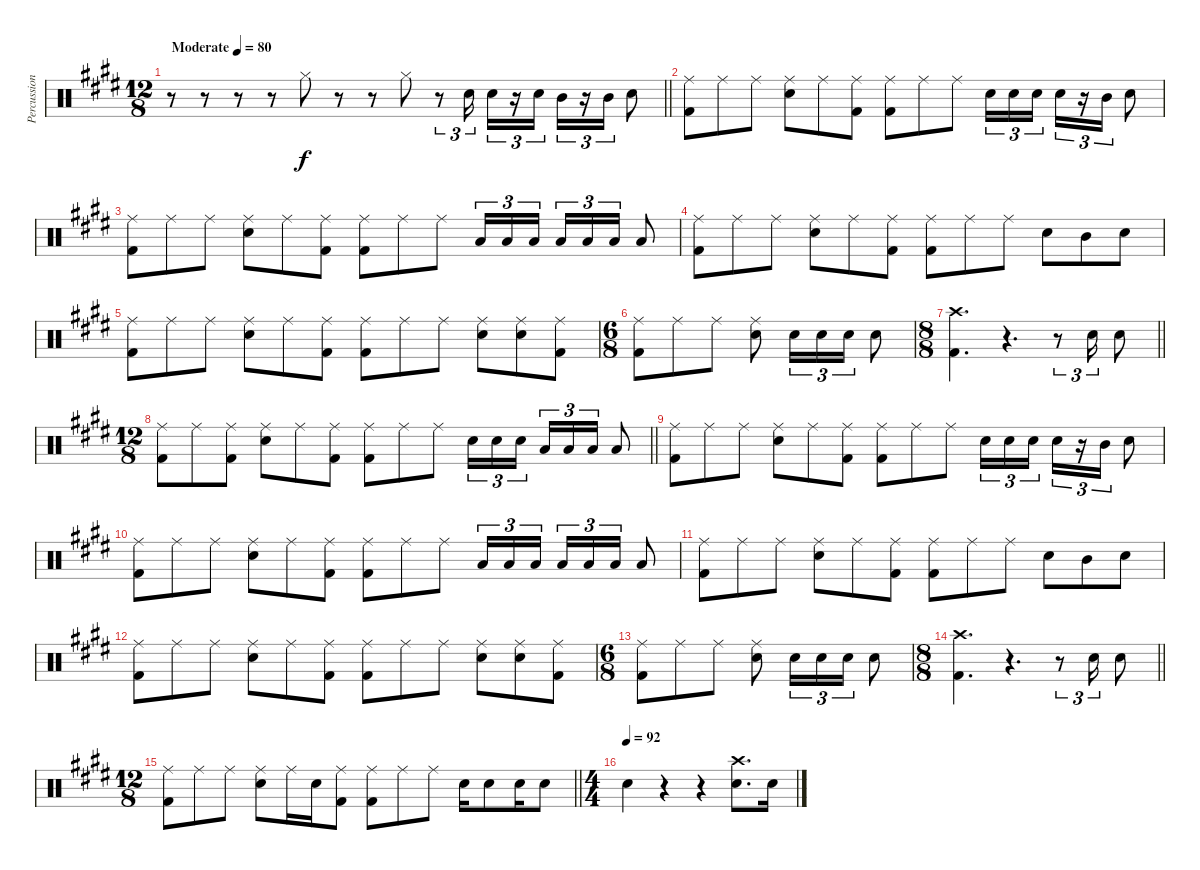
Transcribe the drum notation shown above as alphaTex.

\track ("Percussion" "Percussion") {instrument percussion}
\staff {score}
\articulation defaults
\ts (12 8)
\tempo (80 "Moderate")
\clef neutral
\barLineRight lightlight
\ks e
r.8{dy f} r.8 r.8 r.8 "Hi-Hat (closed)".8 r.8 r.8 "Hi-Hat (closed)".8 r.8{tu (3 2)} "Snare (hit) 2".16{tu (3 2)} "Snare (hit) 2".16{tu (3 2)} r.16{tu (3 2)} "Snare (hit) 2".16{tu (3 2)} "Mid Tom (hit)".16{tu (3 2)} r.16{tu (3 2)} "Mid Tom (hit)".16{tu (3 2)} "Snare (hit) 2".8 |
("Ride (middle)" "Kick (hit) 2").8 "Ride (middle)".8 "Ride (middle)".8 ("Ride (middle)" "Snare (hit) 2").8 "Ride (middle)".8 ("Ride (middle)" "Kick (hit) 2").8 ("Ride (middle)" "Kick (hit) 2").8 "Ride (middle)".8 "Ride (middle)".8 "Snare (hit) 2".16{tu (3 2)} "Snare (hit) 2".16{tu (3 2)} "Snare (hit) 2".16{tu (3 2) beam splitsecondary} "Snare (hit) 2".16{tu (3 2)} r.16{tu (3 2)} "Mid Tom (hit)".16{tu (3 2)} "Snare (hit) 2".8 |
("Ride (middle)" "Kick (hit) 2").8 "Ride (middle)".8 "Ride (middle)".8 ("Ride (middle)" "Snare (hit) 2").8 "Ride (middle)".8 ("Ride (middle)" "Kick (hit) 2").8 ("Ride (middle)" "Kick (hit) 2").8 "Ride (middle)".8 "Ride (middle)".8 "Low Floor Tom (hit)".16{tu (3 2)} "Low Floor Tom (hit)".16{tu (3 2)} "Low Floor Tom (hit)".16{tu (3 2) beam splitsecondary} "Low Floor Tom (hit)".16{tu (3 2)} "Low Floor Tom (hit)".16{tu (3 2)} "Low Floor Tom (hit)".16{tu (3 2)} "Low Floor Tom (hit)".8 |
("Ride (middle)" "Kick (hit) 2").8 "Ride (middle)".8 "Ride (middle)".8 ("Ride (middle)" "Snare (hit) 2").8 "Ride (middle)".8 ("Ride (middle)" "Kick (hit) 2").8 ("Ride (middle)" "Kick (hit) 2").8 "Ride (middle)".8 "Ride (middle)".8 "Snare (hit) 2".8 "Mid Tom (hit)".8 "Snare (hit) 2".8 |
("Ride (middle)" "Kick (hit) 2").8 "Ride (middle)".8 "Ride (middle)".8 ("Ride (middle)" "Snare (hit) 2").8 "Ride (middle)".8 ("Ride (middle)" "Kick (hit) 2").8 ("Ride (middle)" "Kick (hit) 2").8 "Ride (middle)".8 "Ride (middle)".8 ("Ride (middle)" "Snare (hit) 2").8 ("Ride (middle)" "Snare (hit) 2").8 ("Ride (middle)" "Kick (hit) 2").8 |
\ts (6 8)
("Ride (middle)" "Kick (hit) 2").8 "Ride (middle)".8 "Ride (middle)".8 ("Ride (middle)" "Snare (hit) 2").8 "Snare (hit) 2".16{tu (3 2)} "Snare (hit) 2".16{tu (3 2)} "Snare (hit) 2".16{tu (3 2)} "Snare (hit) 2".8 |
\ts (8 8)
\barLineRight lightlight
("Crash high (hit)" "Kick (hit) 2").4{d} r.4{d} r.8{tu (3 2)} "Snare (hit) 2".16{tu (3 2)} "Snare (hit) 2".8 |
\ts (12 8)
\barLineRight lightlight
("Ride (middle)" "Kick (hit) 2").8 "Ride (middle)".8 ("Ride (middle)" "Kick (hit) 2").8 ("Ride (middle)" "Snare (hit) 2").8 "Ride (middle)".8 ("Ride (middle)" "Kick (hit) 2").8 ("Ride (middle)" "Kick (hit) 2").8 "Ride (middle)".8 "Ride (middle)".8 "Snare (hit) 2".16{tu (3 2)} "Snare (hit) 2".16{tu (3 2)} "Snare (hit) 2".16{tu (3 2) beam splitsecondary} "Low Floor Tom (hit)".16{tu (3 2)} "Low Floor Tom (hit)".16{tu (3 2)} "Low Floor Tom (hit)".16{tu (3 2)} "Low Floor Tom (hit)".8 |
("Ride (middle)" "Kick (hit) 2").8 "Ride (middle)".8 "Ride (middle)".8 ("Ride (middle)" "Snare (hit) 2").8 "Ride (middle)".8 ("Ride (middle)" "Kick (hit) 2").8 ("Ride (middle)" "Kick (hit) 2").8 "Ride (middle)".8 "Ride (middle)".8 "Snare (hit) 2".16{tu (3 2)} "Snare (hit) 2".16{tu (3 2)} "Snare (hit) 2".16{tu (3 2) beam splitsecondary} "Snare (hit) 2".16{tu (3 2)} r.16{tu (3 2)} "Mid Tom (hit)".16{tu (3 2)} "Snare (hit) 2".8 |
("Ride (middle)" "Kick (hit) 2").8 "Ride (middle)".8 "Ride (middle)".8 ("Ride (middle)" "Snare (hit) 2").8 "Ride (middle)".8 ("Ride (middle)" "Kick (hit) 2").8 ("Ride (middle)" "Kick (hit) 2").8 "Ride (middle)".8 "Ride (middle)".8 "Low Floor Tom (hit)".16{tu (3 2)} "Low Floor Tom (hit)".16{tu (3 2)} "Low Floor Tom (hit)".16{tu (3 2) beam splitsecondary} "Low Floor Tom (hit)".16{tu (3 2)} "Low Floor Tom (hit)".16{tu (3 2)} "Low Floor Tom (hit)".16{tu (3 2)} "Low Floor Tom (hit)".8 |
("Ride (middle)" "Kick (hit) 2").8 "Ride (middle)".8 "Ride (middle)".8 ("Ride (middle)" "Snare (hit) 2").8 "Ride (middle)".8 ("Ride (middle)" "Kick (hit) 2").8 ("Ride (middle)" "Kick (hit) 2").8 "Ride (middle)".8 "Ride (middle)".8 "Snare (hit) 2".8 "Mid Tom (hit)".8 "Snare (hit) 2".8 |
("Ride (middle)" "Kick (hit) 2").8 "Ride (middle)".8 "Ride (middle)".8 ("Ride (middle)" "Snare (hit) 2").8 "Ride (middle)".8 ("Ride (middle)" "Kick (hit) 2").8 ("Ride (middle)" "Kick (hit) 2").8 "Ride (middle)".8 "Ride (middle)".8 ("Ride (middle)" "Snare (hit) 2").8 ("Ride (middle)" "Snare (hit) 2").8 ("Ride (middle)" "Kick (hit) 2").8 |
\ts (6 8)
("Ride (middle)" "Kick (hit) 2").8 "Ride (middle)".8 "Ride (middle)".8 ("Ride (middle)" "Snare (hit) 2").8 "Snare (hit) 2".16{tu (3 2)} "Snare (hit) 2".16{tu (3 2)} "Snare (hit) 2".16{tu (3 2)} "Snare (hit) 2".8 |
\ts (8 8)
\barLineRight lightlight
("Crash high (hit)" "Kick (hit) 2").4{d} r.4{d} r.8{tu (3 2)} "Snare (hit) 2".16{tu (3 2)} "Snare (hit) 2".8 |
\ts (12 8)
\barLineRight lightlight
("Ride (middle)" "Kick (hit) 2").8 "Ride (middle)".8 "Ride (middle)".8 ("Ride (middle)" "Snare (hit) 2").8 "Ride (middle)".16 "Snare (hit) 2".16 ("Ride (middle)" "Kick (hit) 2").8 ("Ride (middle)" "Kick (hit) 2").8 "Ride (middle)".8 "Ride (middle)".8 "Snare (hit) 2".16 "Snare (hit) 2".8 "Snare (hit) 2".16 "Snare (hit) 2".8 |
\ts (4 4)
\tempo (92)
"Snare (hit) 2".4 r.4 r.4 ("Crash high (hit)" "Snare (hit) 2").8{d} "Snare (hit) 2".16
